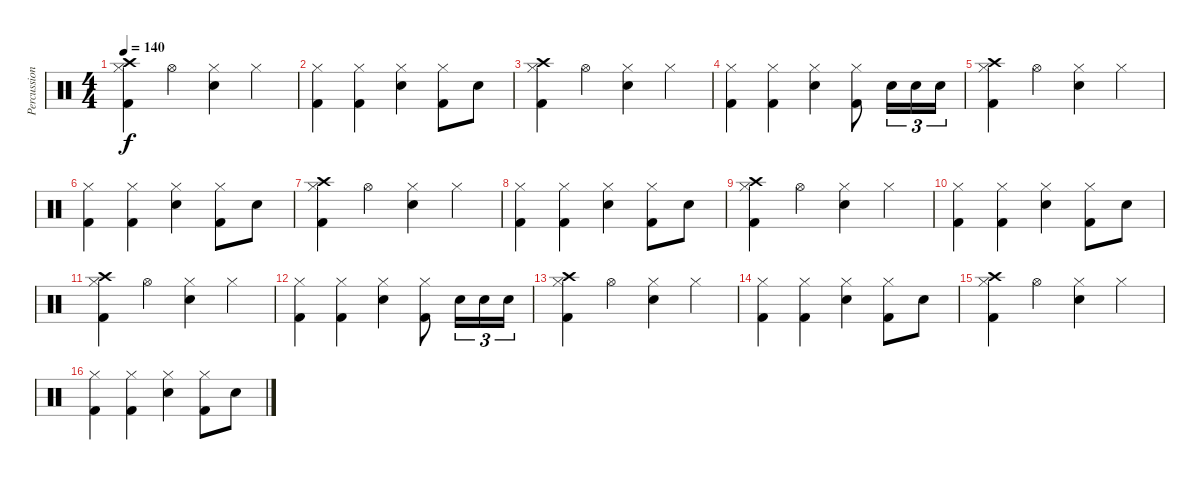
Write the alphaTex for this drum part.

\track ("Percussion" "Percussion") {instrument percussion}
\staff {score}
\articulation defaults
\ts (4 4)
\tempo 140
\clef neutral
\ks c
("Crash high (hit)" "Hi-Hat (closed)" "Kick (hit) 2").4{dy f} "Hi-Hat (open)".4 ("Hi-Hat (closed)" "Electric Snare (hit)").4 "Hi-Hat (closed)".4 |
("Hi-Hat (closed)" "Kick (hit) 2").4 ("Hi-Hat (closed)" "Kick (hit) 2").4 ("Hi-Hat (closed)" "Electric Snare (hit)").4 ("Hi-Hat (closed)" "Kick (hit) 2").8 "Electric Snare (hit)".8 |
("Crash high (hit)" "Hi-Hat (closed)" "Kick (hit) 2").4 "Hi-Hat (open)".4 ("Hi-Hat (closed)" "Electric Snare (hit)").4 "Hi-Hat (closed)".4 |
("Hi-Hat (closed)" "Kick (hit) 2").4 ("Hi-Hat (closed)" "Kick (hit) 2").4 ("Hi-Hat (closed)" "Electric Snare (hit)").4 ("Hi-Hat (closed)" "Kick (hit) 2").8 "Electric Snare (hit)".16{tu (3 2)} "Electric Snare (hit)".16{tu (3 2)} "Electric Snare (hit)".16{tu (3 2)} |
("Crash high (hit)" "Hi-Hat (closed)" "Kick (hit) 2").4 "Hi-Hat (open)".4 ("Hi-Hat (closed)" "Electric Snare (hit)").4 "Hi-Hat (closed)".4 |
("Hi-Hat (closed)" "Kick (hit) 2").4 ("Hi-Hat (closed)" "Kick (hit) 2").4 ("Hi-Hat (closed)" "Electric Snare (hit)").4 ("Hi-Hat (closed)" "Kick (hit) 2").8 "Electric Snare (hit)".8 |
("Crash high (hit)" "Hi-Hat (closed)" "Kick (hit) 2").4 "Hi-Hat (open)".4 ("Hi-Hat (closed)" "Electric Snare (hit)").4 "Hi-Hat (closed)".4 |
("Hi-Hat (closed)" "Kick (hit) 2").4 ("Hi-Hat (closed)" "Kick (hit) 2").4 ("Hi-Hat (closed)" "Electric Snare (hit)").4 ("Hi-Hat (closed)" "Kick (hit) 2").8 "Electric Snare (hit)".8 |
("Crash high (hit)" "Hi-Hat (closed)" "Kick (hit) 2").4 "Hi-Hat (open)".4 ("Hi-Hat (closed)" "Electric Snare (hit)").4 "Hi-Hat (closed)".4 |
("Hi-Hat (closed)" "Kick (hit) 2").4 ("Hi-Hat (closed)" "Kick (hit) 2").4 ("Hi-Hat (closed)" "Electric Snare (hit)").4 ("Hi-Hat (closed)" "Kick (hit) 2").8 "Electric Snare (hit)".8 |
("Crash high (hit)" "Hi-Hat (closed)" "Kick (hit) 2").4 "Hi-Hat (open)".4 ("Hi-Hat (closed)" "Electric Snare (hit)").4 "Hi-Hat (closed)".4 |
("Hi-Hat (closed)" "Kick (hit) 2").4 ("Hi-Hat (closed)" "Kick (hit) 2").4 ("Hi-Hat (closed)" "Electric Snare (hit)").4 ("Hi-Hat (closed)" "Kick (hit) 2").8 "Electric Snare (hit)".16{tu (3 2)} "Electric Snare (hit)".16{tu (3 2)} "Electric Snare (hit)".16{tu (3 2)} |
("Crash high (hit)" "Hi-Hat (closed)" "Kick (hit) 2").4 "Hi-Hat (open)".4 ("Hi-Hat (closed)" "Electric Snare (hit)").4 "Hi-Hat (closed)".4 |
("Hi-Hat (closed)" "Kick (hit) 2").4 ("Hi-Hat (closed)" "Kick (hit) 2").4 ("Hi-Hat (closed)" "Electric Snare (hit)").4 ("Hi-Hat (closed)" "Kick (hit) 2").8 "Electric Snare (hit)".8 |
("Crash high (hit)" "Hi-Hat (closed)" "Kick (hit) 2").4 "Hi-Hat (open)".4 ("Hi-Hat (closed)" "Electric Snare (hit)").4 "Hi-Hat (closed)".4 |
("Hi-Hat (closed)" "Kick (hit) 2").4 ("Hi-Hat (closed)" "Kick (hit) 2").4 ("Hi-Hat (closed)" "Electric Snare (hit)").4 ("Hi-Hat (closed)" "Kick (hit) 2").8 "Electric Snare (hit)".8
